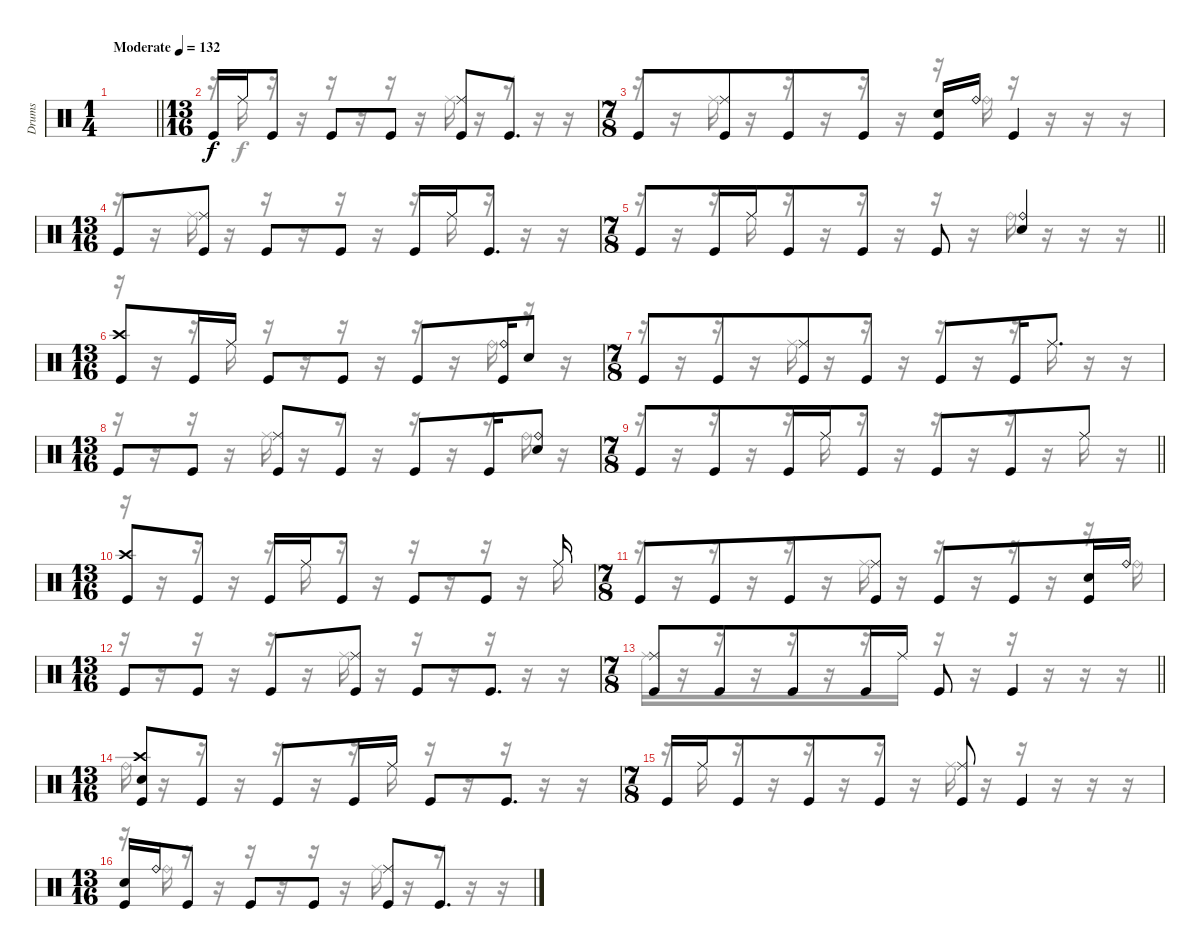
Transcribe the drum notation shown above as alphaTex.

\track ("Drums" "Drums") {instrument percussion}
\staff
\articulation defaults
\voice
\ts (1 4)
\tempo (132 "Moderate")
\clef neutral
\barLineRight lightlight
\ks c
|
\ts (13 16)
"Kick (hit)".16 "Ride (middle)".16 "Kick (hit)".8 "Kick (hit)".8 "Kick (hit)".8 ("Ride (middle)" "Kick (hit)").8 "Kick (hit)".8{d} |
\ts (7 8)
"Kick (hit)".8 ("Ride (middle)" "Kick (hit)").8 "Kick (hit)".8 "Kick (hit)".8 ("Electric Snare (hit)" "Kick (hit)").16 "Ride (bell)".16 "Kick (hit)".4 |
\ts (13 16)
"Kick (hit)".8 ("Ride (middle)" "Kick (hit)").8 "Kick (hit)".8 "Kick (hit)".8 "Kick (hit)".16 "Ride (middle)".16 "Kick (hit)".8{d} |
\ts (7 8)
\barLineRight lightlight "Kick (hit)".8 "Kick (hit)".16 "Ride (middle)".16 "Kick (hit)".8 "Kick (hit)".8 "Kick (hit)".8
("Ride (bell)" "Electric Snare (hit)").4 |
\ts (13 16)
("Crash high (hit)" "Kick (hit)").8 "Kick (hit)".16 "Ride (middle)".16 "Kick (hit)".8 "Kick (hit)".8 "Kick (hit)".8 ("Ride (bell)" "Kick (hit)").16 "Electric Snare (hit)".8 |
\ts (7 8)
"Kick (hit)".8 "Kick (hit)".8 ("Ride (middle)" "Kick (hit)").8 "Kick (hit)".8 "Kick (hit)".8 "Kick (hit)".16 "Ride (middle)".8{d} |
\ts (13 16)
"Kick (hit)".8 "Kick (hit)".8 ("Ride (middle)" "Kick (hit)").8 "Kick (hit)".8 "Kick (hit)".8 "Kick (hit)".16 ("Ride (bell)" "Electric Snare (hit)").8 |
\ts (7 8)
\barLineRight lightlight "Kick (hit)".8 "Kick (hit)".8 "Kick (hit)".16 "Ride (middle)".16 "Kick (hit)".8 "Kick (hit)".8 "Kick (hit)".8 "Ride (middle)".8
|
\ts (13 16)
("Crash high (hit)" "Kick (hit)").8 "Kick (hit)".8 "Kick (hit)".16 "Ride (middle)".16 "Kick (hit)".8 "Kick (hit)".8 "Kick (hit)".8 "Ride (middle)".16 |
\ts (7 8)
"Kick (hit)".8 "Kick (hit)".8 "Kick (hit)".8 ("Ride (middle)" "Kick (hit)").8 "Kick (hit)".8 "Kick (hit)".8 ("Electric Snare (hit)" "Kick (hit)").16 "Ride (bell)".16 |
\ts (13 16)
"Kick (hit)".8 "Kick (hit)".8 "Kick (hit)".8 ("Ride (middle)" "Kick (hit)").8 "Kick (hit)".8 "Kick (hit)".8{d} |
\ts (7 8)
\barLineRight lightlight
("Ride (middle)" "Kick (hit)").8 "Kick (hit)".8 "Kick (hit)".8 "Kick (hit)".16 "Ride (middle)".16 "Kick (hit)".8 "Kick (hit)".4 |
\ts (13 16)
("Crash high (hit)" "Electric Snare (hit)" "Kick (hit)").8 "Kick (hit)".8 "Kick (hit)".8 "Kick (hit)".16 "Ride (middle)".16 "Kick (hit)".8 "Kick (hit)".8{d} |
\ts (7 8)
"Kick (hit)".16 "Ride (middle)".16 "Kick (hit)".8 "Kick (hit)".8 "Kick (hit)".8 ("Ride (middle)" "Kick (hit)").8 "Kick (hit)".4 |
\ts (13 16)
("Electric Snare (hit)" "Kick (hit)").16 "Ride (bell)".16 "Kick (hit)".8 "Kick (hit)".8 "Kick (hit)".8 ("Ride (middle)" "Kick (hit)").8 "Kick (hit)".8{d}
\voice
\clef neutral
\ottava regular
\simile none
\barLineRight lightlight
\ks c
|
r.16 "Ride (middle)".16 r.16 r.16 r.16 r.16 r.16 r.16 "Ride (middle)".16 r.16 r.16 r.16 r.16 |
r.16 r.16 "Ride (middle)".16 r.16 r.16 r.16 r.16 r.16 r.16 "Ride (bell)".16 r.16 r.16 r.16 r.16 |
r.16 r.16 "Ride (middle)".16 r.16 r.16 r.16 r.16 r.16 r.16 "Ride (middle)".16 r.16 r.16 r.16 |
\barLineRight lightlight
r.16 r.16 r.16 "Ride (middle)".16 r.16 r.16 r.16 r.16 r.16 r.16 "Ride (bell)".16 r.16 r.16 r.16 |
r.16 r.16 r.16 "Ride (middle)".16 r.16 r.16 r.16 r.16 r.16 r.16 "Ride (bell)".16 r.16 r.16 |
r.16 r.16 r.16 r.16 "Ride (middle)".16 r.16 r.16 r.16 r.16 r.16 r.16 "Ride (middle)".16 r.16 r.16 |
r.16 r.16 r.16 r.16 "Ride (middle)".16 r.16 r.16 r.16 r.16 r.16 r.16 "Ride (bell)".16 r.16 |
\barLineRight lightlight
r.16 r.16 r.16 r.16 r.16 "Ride (middle)".16 r.16 r.16 r.16 r.16 r.16 r.16 "Ride (middle)".16 r.16 |
r.16 r.16 r.16 r.16 r.16 "Ride (middle)".16 r.16 r.16 r.16 r.16 r.16 r.16 "Ride (middle)".16 |
r.16 r.16 r.16 r.16 r.16 r.16 "Ride (middle)".16 r.16 r.16 r.16 r.16 r.16 r.16 "Ride (bell)".16 |
r.16 r.16 r.16 r.16 r.16 r.16 "Ride (middle)".16 r.16 r.16 r.16 r.16 r.16 r.16 |
\barLineRight lightlight "Ride (middle)".16
r.16 r.16 r.16 r.16 r.16 r.16 "Ride (middle)".16 r.16 r.16 r.16 r.16 r.16 r.16 |
"Ride (bell)".16 r.16 r.16 r.16 r.16 r.16 r.16 "Ride (middle)".16 r.16 r.16 r.16 r.16 r.16 |
r.16 "Ride (middle)".16 r.16 r.16 r.16 r.16 r.16 r.16 "Ride (middle)".16 r.16 r.16 r.16 r.16 r.16 |
r.16 "Ride (bell)".16 r.16 r.16 r.16 r.16 r.16 r.16 "Ride (middle)".16 r.16 r.16 r.16 r.16
